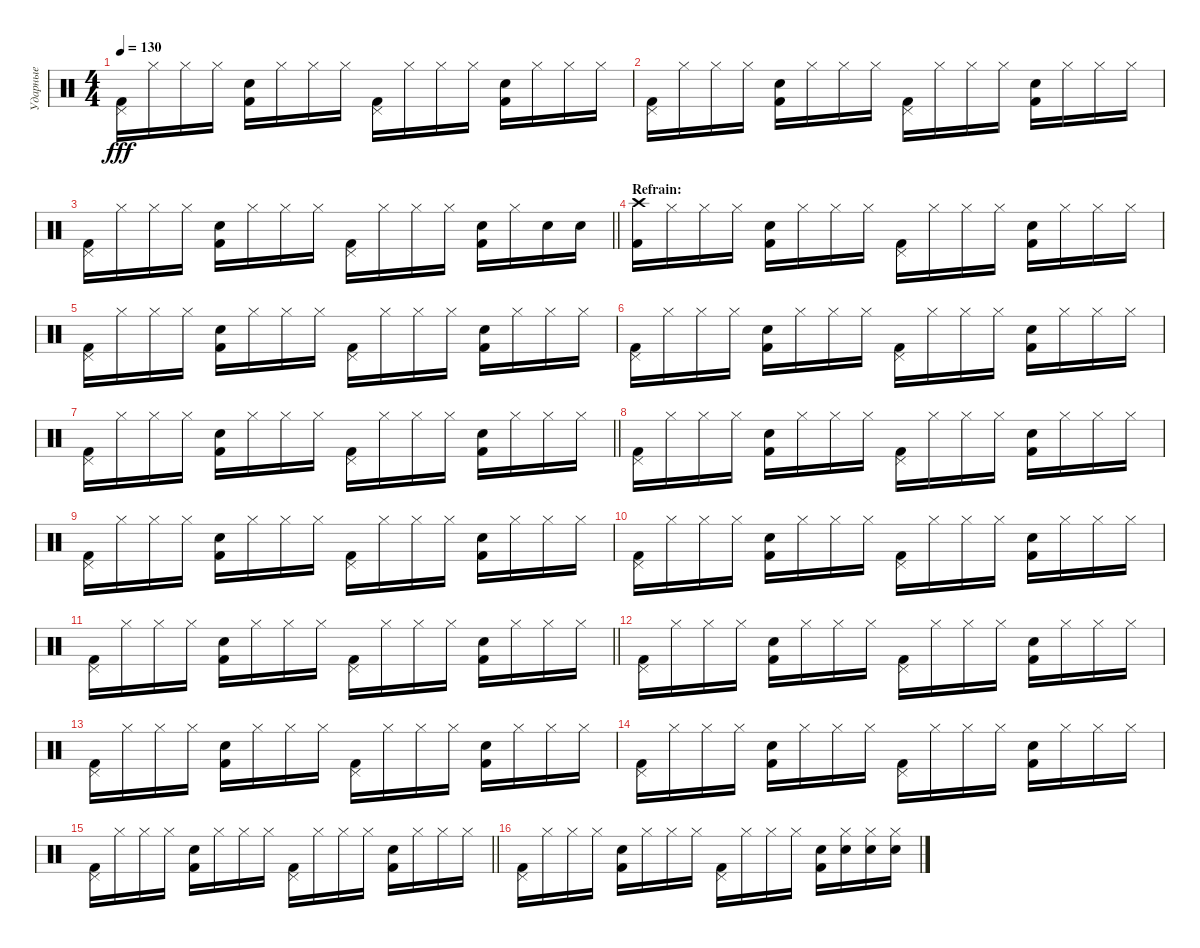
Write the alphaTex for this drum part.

\track ("Ударные" "Ударные") {instrument percussion}
\staff {score}
\articulation defaults
\ts (4 4)
\tempo 130
\clef neutral
\ks c
("Pedal Hi-Hat (hit)" "Kick (hit) 2").16{dy fff} "Hi-Hat (closed)".16 "Hi-Hat (closed)".16 "Hi-Hat (closed)".16 ("Snare (hit) 2" "Kick (hit) 2").16 "Hi-Hat (closed)".16 "Hi-Hat (closed)".16 "Hi-Hat (closed)".16 ("Pedal Hi-Hat (hit)" "Kick (hit) 2").16 "Hi-Hat (closed)".16 "Hi-Hat (closed)".16 "Hi-Hat (closed)".16 ("Snare (hit) 2" "Kick (hit) 2").16 "Hi-Hat (closed)".16 "Hi-Hat (closed)".16 "Hi-Hat (closed)".16 |
("Pedal Hi-Hat (hit)" "Kick (hit) 2").16 "Hi-Hat (closed)".16 "Hi-Hat (closed)".16 "Hi-Hat (closed)".16 ("Snare (hit) 2" "Kick (hit) 2").16 "Hi-Hat (closed)".16 "Hi-Hat (closed)".16 "Hi-Hat (closed)".16 ("Pedal Hi-Hat (hit)" "Kick (hit) 2").16 "Hi-Hat (closed)".16 "Hi-Hat (closed)".16 "Hi-Hat (closed)".16 ("Snare (hit) 2" "Kick (hit) 2").16 "Hi-Hat (closed)".16 "Hi-Hat (closed)".16 "Hi-Hat (closed)".16 |
\barLineRight lightlight
("Pedal Hi-Hat (hit)" "Kick (hit) 2").16 "Hi-Hat (closed)".16 "Hi-Hat (closed)".16 "Hi-Hat (closed)".16 ("Snare (hit) 2" "Kick (hit) 2").16 "Hi-Hat (closed)".16 "Hi-Hat (closed)".16 "Hi-Hat (closed)".16 ("Pedal Hi-Hat (hit)" "Kick (hit) 2").16 "Hi-Hat (closed)".16 "Hi-Hat (closed)".16 "Hi-Hat (closed)".16 ("Snare (hit) 2" "Kick (hit) 2").16 "Hi-Hat (closed)".16 "Snare (hit) 2".16 "Snare (hit) 2".16 |
\section ("" "Refrain:")
("Crash high (hit)" "Kick (hit) 2").16 "Hi-Hat (closed)".16 "Hi-Hat (closed)".16 "Hi-Hat (closed)".16 ("Snare (hit) 2" "Kick (hit) 2").16 "Hi-Hat (closed)".16 "Hi-Hat (closed)".16 "Hi-Hat (closed)".16 ("Pedal Hi-Hat (hit)" "Kick (hit) 2").16 "Hi-Hat (closed)".16 "Hi-Hat (closed)".16 "Hi-Hat (closed)".16 ("Snare (hit) 2" "Kick (hit) 2").16 "Hi-Hat (closed)".16 "Hi-Hat (closed)".16 "Hi-Hat (closed)".16 |
("Pedal Hi-Hat (hit)" "Kick (hit) 2").16 "Hi-Hat (closed)".16 "Hi-Hat (closed)".16 "Hi-Hat (closed)".16 ("Snare (hit) 2" "Kick (hit) 2").16 "Hi-Hat (closed)".16 "Hi-Hat (closed)".16 "Hi-Hat (closed)".16 ("Pedal Hi-Hat (hit)" "Kick (hit) 2").16 "Hi-Hat (closed)".16 "Hi-Hat (closed)".16 "Hi-Hat (closed)".16 ("Snare (hit) 2" "Kick (hit) 2").16 "Hi-Hat (closed)".16 "Hi-Hat (closed)".16 "Hi-Hat (closed)".16 |
("Pedal Hi-Hat (hit)" "Kick (hit) 2").16 "Hi-Hat (closed)".16 "Hi-Hat (closed)".16 "Hi-Hat (closed)".16 ("Snare (hit) 2" "Kick (hit) 2").16 "Hi-Hat (closed)".16 "Hi-Hat (closed)".16 "Hi-Hat (closed)".16 ("Pedal Hi-Hat (hit)" "Kick (hit) 2").16 "Hi-Hat (closed)".16 "Hi-Hat (closed)".16 "Hi-Hat (closed)".16 ("Snare (hit) 2" "Kick (hit) 2").16 "Hi-Hat (closed)".16 "Hi-Hat (closed)".16 "Hi-Hat (closed)".16 |
\barLineRight lightlight
("Pedal Hi-Hat (hit)" "Kick (hit) 2").16 "Hi-Hat (closed)".16 "Hi-Hat (closed)".16 "Hi-Hat (closed)".16 ("Snare (hit) 2" "Kick (hit) 2").16 "Hi-Hat (closed)".16 "Hi-Hat (closed)".16 "Hi-Hat (closed)".16 ("Pedal Hi-Hat (hit)" "Kick (hit) 2").16 "Hi-Hat (closed)".16 "Hi-Hat (closed)".16 "Hi-Hat (closed)".16 ("Snare (hit) 2" "Kick (hit) 2").16 "Hi-Hat (closed)".16 "Hi-Hat (closed)".16 "Hi-Hat (closed)".16 |
("Pedal Hi-Hat (hit)" "Kick (hit) 2").16 "Hi-Hat (closed)".16 "Hi-Hat (closed)".16 "Hi-Hat (closed)".16 ("Snare (hit) 2" "Kick (hit) 2").16 "Hi-Hat (closed)".16 "Hi-Hat (closed)".16 "Hi-Hat (closed)".16 ("Pedal Hi-Hat (hit)" "Kick (hit) 2").16 "Hi-Hat (closed)".16 "Hi-Hat (closed)".16 "Hi-Hat (closed)".16 ("Snare (hit) 2" "Kick (hit) 2").16 "Hi-Hat (closed)".16 "Hi-Hat (closed)".16 "Hi-Hat (closed)".16 |
("Pedal Hi-Hat (hit)" "Kick (hit) 2").16 "Hi-Hat (closed)".16 "Hi-Hat (closed)".16 "Hi-Hat (closed)".16 ("Snare (hit) 2" "Kick (hit) 2").16 "Hi-Hat (closed)".16 "Hi-Hat (closed)".16 "Hi-Hat (closed)".16 ("Pedal Hi-Hat (hit)" "Kick (hit) 2").16 "Hi-Hat (closed)".16 "Hi-Hat (closed)".16 "Hi-Hat (closed)".16 ("Snare (hit) 2" "Kick (hit) 2").16 "Hi-Hat (closed)".16 "Hi-Hat (closed)".16 "Hi-Hat (closed)".16 |
("Pedal Hi-Hat (hit)" "Kick (hit) 2").16 "Hi-Hat (closed)".16 "Hi-Hat (closed)".16 "Hi-Hat (closed)".16 ("Snare (hit) 2" "Kick (hit) 2").16 "Hi-Hat (closed)".16 "Hi-Hat (closed)".16 "Hi-Hat (closed)".16 ("Pedal Hi-Hat (hit)" "Kick (hit) 2").16 "Hi-Hat (closed)".16 "Hi-Hat (closed)".16 "Hi-Hat (closed)".16 ("Snare (hit) 2" "Kick (hit) 2").16 "Hi-Hat (closed)".16 "Hi-Hat (closed)".16 "Hi-Hat (closed)".16 |
\barLineRight lightlight
("Pedal Hi-Hat (hit)" "Kick (hit) 2").16 "Hi-Hat (closed)".16 "Hi-Hat (closed)".16 "Hi-Hat (closed)".16 ("Snare (hit) 2" "Kick (hit) 2").16 "Hi-Hat (closed)".16 "Hi-Hat (closed)".16 "Hi-Hat (closed)".16 ("Pedal Hi-Hat (hit)" "Kick (hit) 2").16 "Hi-Hat (closed)".16 "Hi-Hat (closed)".16 "Hi-Hat (closed)".16 ("Snare (hit) 2" "Kick (hit) 2").16 "Hi-Hat (closed)".16 "Hi-Hat (closed)".16 "Hi-Hat (closed)".16 |
("Pedal Hi-Hat (hit)" "Kick (hit) 2").16 "Hi-Hat (closed)".16 "Hi-Hat (closed)".16 "Hi-Hat (closed)".16 ("Snare (hit) 2" "Kick (hit) 2").16 "Hi-Hat (closed)".16 "Hi-Hat (closed)".16 "Hi-Hat (closed)".16 ("Pedal Hi-Hat (hit)" "Kick (hit) 2").16 "Hi-Hat (closed)".16 "Hi-Hat (closed)".16 "Hi-Hat (closed)".16 ("Snare (hit) 2" "Kick (hit) 2").16 "Hi-Hat (closed)".16 "Hi-Hat (closed)".16 "Hi-Hat (closed)".16 |
("Pedal Hi-Hat (hit)" "Kick (hit) 2").16 "Hi-Hat (closed)".16 "Hi-Hat (closed)".16 "Hi-Hat (closed)".16 ("Snare (hit) 2" "Kick (hit) 2").16 "Hi-Hat (closed)".16 "Hi-Hat (closed)".16 "Hi-Hat (closed)".16 ("Pedal Hi-Hat (hit)" "Kick (hit) 2").16 "Hi-Hat (closed)".16 "Hi-Hat (closed)".16 "Hi-Hat (closed)".16 ("Snare (hit) 2" "Kick (hit) 2").16 "Hi-Hat (closed)".16 "Hi-Hat (closed)".16 "Hi-Hat (closed)".16 |
("Pedal Hi-Hat (hit)" "Kick (hit) 2").16 "Hi-Hat (closed)".16 "Hi-Hat (closed)".16 "Hi-Hat (closed)".16 ("Snare (hit) 2" "Kick (hit) 2").16 "Hi-Hat (closed)".16 "Hi-Hat (closed)".16 "Hi-Hat (closed)".16 ("Pedal Hi-Hat (hit)" "Kick (hit) 2").16 "Hi-Hat (closed)".16 "Hi-Hat (closed)".16 "Hi-Hat (closed)".16 ("Snare (hit) 2" "Kick (hit) 2").16 "Hi-Hat (closed)".16 "Hi-Hat (closed)".16 "Hi-Hat (closed)".16 |
\barLineRight lightlight
("Pedal Hi-Hat (hit)" "Kick (hit) 2").16 "Hi-Hat (closed)".16 "Hi-Hat (closed)".16 "Hi-Hat (closed)".16 ("Snare (hit) 2" "Kick (hit) 2").16 "Hi-Hat (closed)".16 "Hi-Hat (closed)".16 "Hi-Hat (closed)".16 ("Pedal Hi-Hat (hit)" "Kick (hit) 2").16 "Hi-Hat (closed)".16 "Hi-Hat (closed)".16 "Hi-Hat (closed)".16 ("Snare (hit) 2" "Kick (hit) 2").16 "Hi-Hat (closed)".16 "Hi-Hat (closed)".16 "Hi-Hat (closed)".16 |
("Pedal Hi-Hat (hit)" "Kick (hit) 2").16 "Hi-Hat (closed)".16 "Hi-Hat (closed)".16 "Hi-Hat (closed)".16 ("Snare (hit) 2" "Kick (hit) 2").16 "Hi-Hat (closed)".16 "Hi-Hat (closed)".16 "Hi-Hat (closed)".16 ("Pedal Hi-Hat (hit)" "Kick (hit) 2").16 "Hi-Hat (closed)".16 "Hi-Hat (closed)".16 "Hi-Hat (closed)".16 ("Snare (hit) 2" "Kick (hit) 2").16 ("Hi-Hat (closed)" "Snare (hit) 2").16 ("Hi-Hat (closed)" "Snare (hit) 2").16 ("Hi-Hat (closed)" "Snare (hit) 2").16
